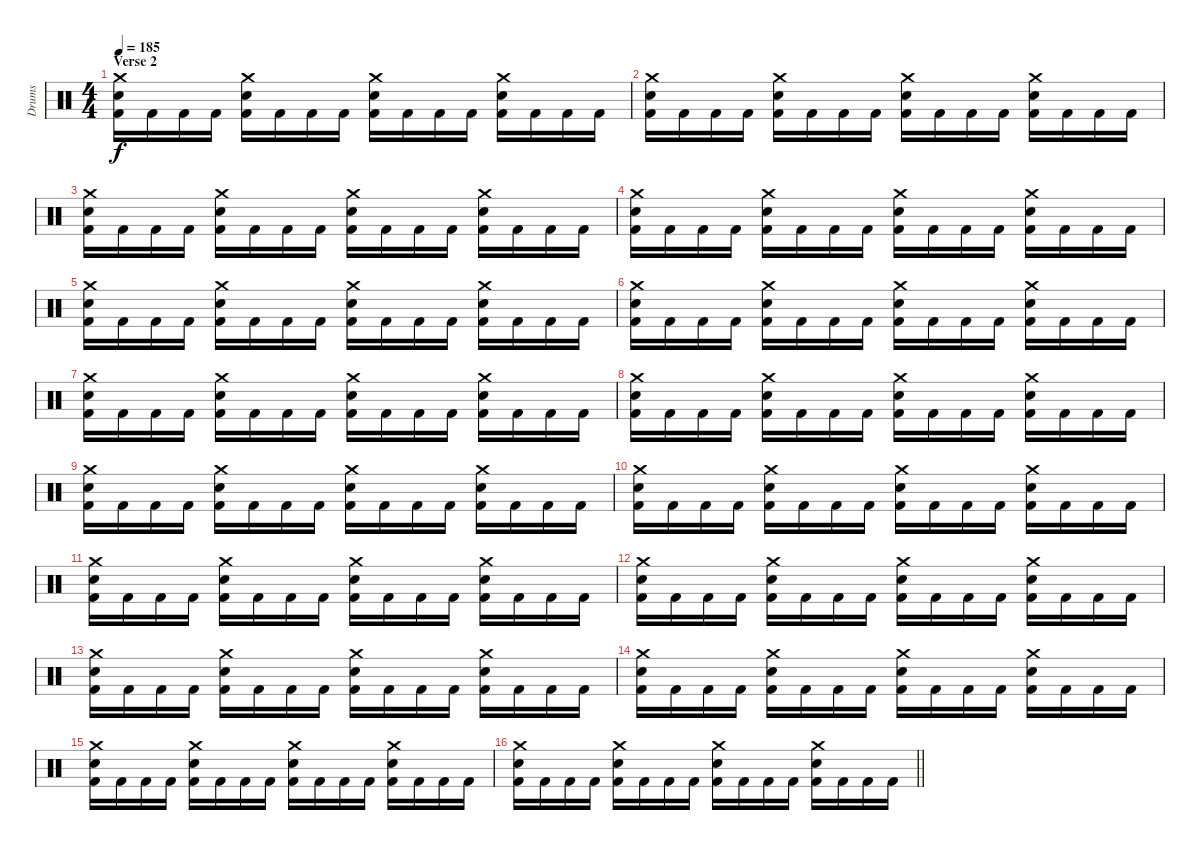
\track ("Drums" "Drums") {instrument percussion}
\staff {score}
\articulation defaults
\ts (4 4)
\section ("" "Verse 2")
\tempo 185
\clef neutral
\ks c
("Crash medium (hit)" "Snare (hit) 2" "Kick (hit) 2").16{dy f} "Kick (hit) 2".16 "Kick (hit) 2".16 "Kick (hit) 2".16 ("Crash medium (hit)" "Snare (hit) 2" "Kick (hit) 2").16 "Kick (hit) 2".16 "Kick (hit) 2".16 "Kick (hit) 2".16 ("Crash medium (hit)" "Snare (hit) 2" "Kick (hit) 2").16 "Kick (hit) 2".16 "Kick (hit) 2".16 "Kick (hit) 2".16 ("Crash medium (hit)" "Snare (hit) 2" "Kick (hit) 2").16 "Kick (hit) 2".16 "Kick (hit) 2".16 "Kick (hit) 2".16 |
("Crash medium (hit)" "Snare (hit) 2" "Kick (hit) 2").16 "Kick (hit) 2".16 "Kick (hit) 2".16 "Kick (hit) 2".16 ("Crash medium (hit)" "Snare (hit) 2" "Kick (hit) 2").16 "Kick (hit) 2".16 "Kick (hit) 2".16 "Kick (hit) 2".16 ("Crash medium (hit)" "Snare (hit) 2" "Kick (hit) 2").16 "Kick (hit) 2".16 "Kick (hit) 2".16 "Kick (hit) 2".16 ("Crash medium (hit)" "Snare (hit) 2" "Kick (hit) 2").16 "Kick (hit) 2".16 "Kick (hit) 2".16 "Kick (hit) 2".16 |
("Crash medium (hit)" "Snare (hit) 2" "Kick (hit) 2").16 "Kick (hit) 2".16 "Kick (hit) 2".16 "Kick (hit) 2".16 ("Crash medium (hit)" "Snare (hit) 2" "Kick (hit) 2").16 "Kick (hit) 2".16 "Kick (hit) 2".16 "Kick (hit) 2".16 ("Crash medium (hit)" "Snare (hit) 2" "Kick (hit) 2").16 "Kick (hit) 2".16 "Kick (hit) 2".16 "Kick (hit) 2".16 ("Crash medium (hit)" "Snare (hit) 2" "Kick (hit) 2").16 "Kick (hit) 2".16 "Kick (hit) 2".16 "Kick (hit) 2".16 |
("Crash medium (hit)" "Snare (hit) 2" "Kick (hit) 2").16 "Kick (hit) 2".16 "Kick (hit) 2".16 "Kick (hit) 2".16 ("Crash medium (hit)" "Snare (hit) 2" "Kick (hit) 2").16 "Kick (hit) 2".16 "Kick (hit) 2".16 "Kick (hit) 2".16 ("Crash medium (hit)" "Snare (hit) 2" "Kick (hit) 2").16 "Kick (hit) 2".16 "Kick (hit) 2".16 "Kick (hit) 2".16 ("Crash medium (hit)" "Snare (hit) 2" "Kick (hit) 2").16 "Kick (hit) 2".16 "Kick (hit) 2".16 "Kick (hit) 2".16 |
("Crash medium (hit)" "Snare (hit) 2" "Kick (hit) 2").16 "Kick (hit) 2".16 "Kick (hit) 2".16 "Kick (hit) 2".16 ("Crash medium (hit)" "Snare (hit) 2" "Kick (hit) 2").16 "Kick (hit) 2".16 "Kick (hit) 2".16 "Kick (hit) 2".16 ("Crash medium (hit)" "Snare (hit) 2" "Kick (hit) 2").16 "Kick (hit) 2".16 "Kick (hit) 2".16 "Kick (hit) 2".16 ("Crash medium (hit)" "Snare (hit) 2" "Kick (hit) 2").16 "Kick (hit) 2".16 "Kick (hit) 2".16 "Kick (hit) 2".16 |
("Crash medium (hit)" "Snare (hit) 2" "Kick (hit) 2").16 "Kick (hit) 2".16 "Kick (hit) 2".16 "Kick (hit) 2".16 ("Crash medium (hit)" "Snare (hit) 2" "Kick (hit) 2").16 "Kick (hit) 2".16 "Kick (hit) 2".16 "Kick (hit) 2".16 ("Crash medium (hit)" "Snare (hit) 2" "Kick (hit) 2").16 "Kick (hit) 2".16 "Kick (hit) 2".16 "Kick (hit) 2".16 ("Crash medium (hit)" "Snare (hit) 2" "Kick (hit) 2").16 "Kick (hit) 2".16 "Kick (hit) 2".16 "Kick (hit) 2".16 |
("Crash medium (hit)" "Snare (hit) 2" "Kick (hit) 2").16 "Kick (hit) 2".16 "Kick (hit) 2".16 "Kick (hit) 2".16 ("Crash medium (hit)" "Snare (hit) 2" "Kick (hit) 2").16 "Kick (hit) 2".16 "Kick (hit) 2".16 "Kick (hit) 2".16 ("Crash medium (hit)" "Snare (hit) 2" "Kick (hit) 2").16 "Kick (hit) 2".16 "Kick (hit) 2".16 "Kick (hit) 2".16 ("Crash medium (hit)" "Snare (hit) 2" "Kick (hit) 2").16 "Kick (hit) 2".16 "Kick (hit) 2".16 "Kick (hit) 2".16 |
("Crash medium (hit)" "Snare (hit) 2" "Kick (hit) 2").16 "Kick (hit) 2".16 "Kick (hit) 2".16 "Kick (hit) 2".16 ("Crash medium (hit)" "Snare (hit) 2" "Kick (hit) 2").16 "Kick (hit) 2".16 "Kick (hit) 2".16 "Kick (hit) 2".16 ("Crash medium (hit)" "Snare (hit) 2" "Kick (hit) 2").16 "Kick (hit) 2".16 "Kick (hit) 2".16 "Kick (hit) 2".16 ("Crash medium (hit)" "Snare (hit) 2" "Kick (hit) 2").16 "Kick (hit) 2".16 "Kick (hit) 2".16 "Kick (hit) 2".16 |
("Crash medium (hit)" "Snare (hit) 2" "Kick (hit) 2").16 "Kick (hit) 2".16 "Kick (hit) 2".16 "Kick (hit) 2".16 ("Crash medium (hit)" "Snare (hit) 2" "Kick (hit) 2").16 "Kick (hit) 2".16 "Kick (hit) 2".16 "Kick (hit) 2".16 ("Crash medium (hit)" "Snare (hit) 2" "Kick (hit) 2").16 "Kick (hit) 2".16 "Kick (hit) 2".16 "Kick (hit) 2".16 ("Crash medium (hit)" "Snare (hit) 2" "Kick (hit) 2").16 "Kick (hit) 2".16 "Kick (hit) 2".16 "Kick (hit) 2".16 |
("Crash medium (hit)" "Snare (hit) 2" "Kick (hit) 2").16 "Kick (hit) 2".16 "Kick (hit) 2".16 "Kick (hit) 2".16 ("Crash medium (hit)" "Snare (hit) 2" "Kick (hit) 2").16 "Kick (hit) 2".16 "Kick (hit) 2".16 "Kick (hit) 2".16 ("Crash medium (hit)" "Snare (hit) 2" "Kick (hit) 2").16 "Kick (hit) 2".16 "Kick (hit) 2".16 "Kick (hit) 2".16 ("Crash medium (hit)" "Snare (hit) 2" "Kick (hit) 2").16 "Kick (hit) 2".16 "Kick (hit) 2".16 "Kick (hit) 2".16 |
("Crash medium (hit)" "Snare (hit) 2" "Kick (hit) 2").16 "Kick (hit) 2".16 "Kick (hit) 2".16 "Kick (hit) 2".16 ("Crash medium (hit)" "Snare (hit) 2" "Kick (hit) 2").16 "Kick (hit) 2".16 "Kick (hit) 2".16 "Kick (hit) 2".16 ("Crash medium (hit)" "Snare (hit) 2" "Kick (hit) 2").16 "Kick (hit) 2".16 "Kick (hit) 2".16 "Kick (hit) 2".16 ("Crash medium (hit)" "Snare (hit) 2" "Kick (hit) 2").16 "Kick (hit) 2".16 "Kick (hit) 2".16 "Kick (hit) 2".16 |
("Crash medium (hit)" "Snare (hit) 2" "Kick (hit) 2").16 "Kick (hit) 2".16 "Kick (hit) 2".16 "Kick (hit) 2".16 ("Crash medium (hit)" "Snare (hit) 2" "Kick (hit) 2").16 "Kick (hit) 2".16 "Kick (hit) 2".16 "Kick (hit) 2".16 ("Crash medium (hit)" "Snare (hit) 2" "Kick (hit) 2").16 "Kick (hit) 2".16 "Kick (hit) 2".16 "Kick (hit) 2".16 ("Crash medium (hit)" "Snare (hit) 2" "Kick (hit) 2").16 "Kick (hit) 2".16 "Kick (hit) 2".16 "Kick (hit) 2".16 |
("Crash medium (hit)" "Snare (hit) 2" "Kick (hit) 2").16 "Kick (hit) 2".16 "Kick (hit) 2".16 "Kick (hit) 2".16 ("Crash medium (hit)" "Snare (hit) 2" "Kick (hit) 2").16 "Kick (hit) 2".16 "Kick (hit) 2".16 "Kick (hit) 2".16 ("Crash medium (hit)" "Snare (hit) 2" "Kick (hit) 2").16 "Kick (hit) 2".16 "Kick (hit) 2".16 "Kick (hit) 2".16 ("Crash medium (hit)" "Snare (hit) 2" "Kick (hit) 2").16 "Kick (hit) 2".16 "Kick (hit) 2".16 "Kick (hit) 2".16 |
("Crash medium (hit)" "Snare (hit) 2" "Kick (hit) 2").16 "Kick (hit) 2".16 "Kick (hit) 2".16 "Kick (hit) 2".16 ("Crash medium (hit)" "Snare (hit) 2" "Kick (hit) 2").16 "Kick (hit) 2".16 "Kick (hit) 2".16 "Kick (hit) 2".16 ("Crash medium (hit)" "Snare (hit) 2" "Kick (hit) 2").16 "Kick (hit) 2".16 "Kick (hit) 2".16 "Kick (hit) 2".16 ("Crash medium (hit)" "Snare (hit) 2" "Kick (hit) 2").16 "Kick (hit) 2".16 "Kick (hit) 2".16 "Kick (hit) 2".16 |
("Crash medium (hit)" "Snare (hit) 2" "Kick (hit) 2").16 "Kick (hit) 2".16 "Kick (hit) 2".16 "Kick (hit) 2".16 ("Crash medium (hit)" "Snare (hit) 2" "Kick (hit) 2").16 "Kick (hit) 2".16 "Kick (hit) 2".16 "Kick (hit) 2".16 ("Crash medium (hit)" "Snare (hit) 2" "Kick (hit) 2").16 "Kick (hit) 2".16 "Kick (hit) 2".16 "Kick (hit) 2".16 ("Crash medium (hit)" "Snare (hit) 2" "Kick (hit) 2").16 "Kick (hit) 2".16 "Kick (hit) 2".16 "Kick (hit) 2".16 |
\barLineRight lightlight
("Crash medium (hit)" "Snare (hit) 2" "Kick (hit) 2").16 "Kick (hit) 2".16 "Kick (hit) 2".16 "Kick (hit) 2".16 ("Crash medium (hit)" "Snare (hit) 2" "Kick (hit) 2").16 "Kick (hit) 2".16 "Kick (hit) 2".16 "Kick (hit) 2".16 ("Crash medium (hit)" "Snare (hit) 2" "Kick (hit) 2").16 "Kick (hit) 2".16 "Kick (hit) 2".16 "Kick (hit) 2".16 ("Crash medium (hit)" "Snare (hit) 2" "Kick (hit) 2").16 "Kick (hit) 2".16 "Kick (hit) 2".16 "Kick (hit) 2".16
